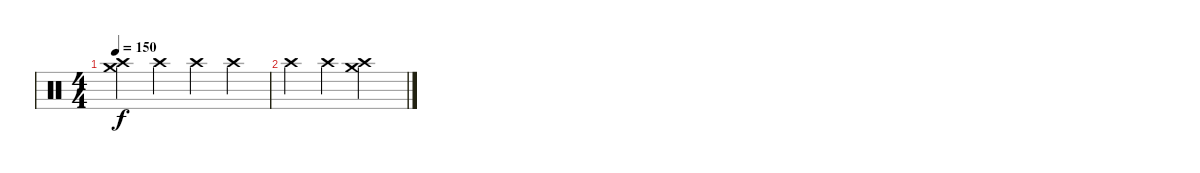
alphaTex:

\track "" {instrument percussion}
\staff {score}
\articulation defaults
\ts (4 4)
\tempo 150
\clef neutral
\ks c
("Crash medium (hit)" "Crash high (hit)").4{dy f} "Crash high (hit)".4 "Crash high (hit)".4 "Crash high (hit)".4 |
"Crash high (hit)".4 "Crash high (hit)".4 ("Crash medium (hit)" "Crash high (hit)").2
